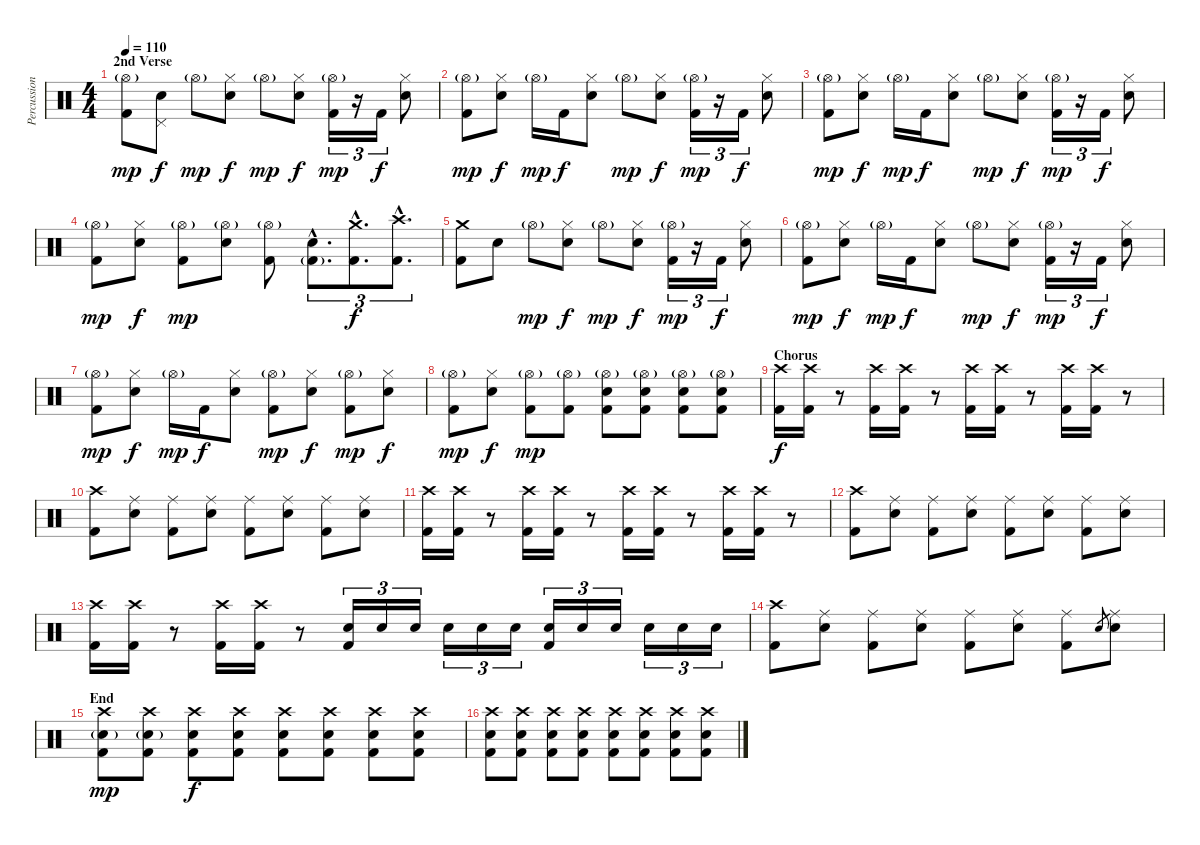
\track ("Percussion" "Percussion") {instrument percussion}
\staff {score}
\articulation defaults
\ts (4 4)
\section ("" "2nd Verse")
\tempo 110
\clef neutral
\ks c
("Hi-Hat (open)"{g} "Kick (hit) 2").8{dy mp} ("Pedal Hi-Hat (hit)" "Electric Snare (hit)").8{dy f} "Hi-Hat (open)"{g}.8{dy mp} ("Hi-Hat (closed)" "Electric Snare (hit)").8{dy f} "Hi-Hat (open)"{g}.8{dy mp} ("Hi-Hat (closed)" "Electric Snare (hit)").8{dy f} ("Hi-Hat (open)"{g} "Kick (hit) 2").16{tu (3 2) dy mp} r.16{tu (3 2)} "Kick (hit) 2".16{tu (3 2) dy f} ("Hi-Hat (closed)" "Electric Snare (hit)").8 |
("Hi-Hat (open)"{g} "Kick (hit) 2").8{dy mp} ("Hi-Hat (closed)" "Electric Snare (hit)").8{dy f} "Hi-Hat (open)"{g}.16{dy mp} "Kick (hit) 2".16{dy f} ("Hi-Hat (closed)" "Electric Snare (hit)").8 "Hi-Hat (open)"{g}.8{dy mp} ("Hi-Hat (closed)" "Electric Snare (hit)").8{dy f} ("Hi-Hat (open)"{g} "Kick (hit) 2").16{tu (3 2) dy mp} r.16{tu (3 2)} "Kick (hit) 2".16{tu (3 2) dy f} ("Hi-Hat (closed)" "Electric Snare (hit)").8 |
("Hi-Hat (open)"{g} "Kick (hit) 2").8{dy mp} ("Hi-Hat (closed)" "Electric Snare (hit)").8{dy f} "Hi-Hat (open)"{g}.16{dy mp} "Kick (hit) 2".16{dy f} ("Hi-Hat (closed)" "Electric Snare (hit)").8 "Hi-Hat (open)"{g}.8{dy mp} ("Hi-Hat (closed)" "Electric Snare (hit)").8{dy f} ("Hi-Hat (open)"{g} "Kick (hit) 2").16{tu (3 2) dy mp} r.16{tu (3 2)} "Kick (hit) 2".16{tu (3 2) dy f} ("Hi-Hat (closed)" "Electric Snare (hit)").8 |
("Hi-Hat (open)"{g} "Kick (hit) 2").8{dy mp} ("Hi-Hat (closed)" "Electric Snare (hit)").8{dy f} ("Hi-Hat (open)"{g} "Kick (hit) 2").8{dy mp} ("Hi-Hat (open)"{g} "Electric Snare (hit)").8 ("Hi-Hat (open)"{g} "Kick (hit) 2").8 ("Kick (hit) 2"{g hac} "Electric Snare (hit)"{hac}).8{d tu (3 2)} ("Crash medium (hit)"{hac} "Kick (hit) 2"{hac}).8{d tu (3 2) dy f} ("Crash high (hit)"{hac} "Kick (hit) 2"{hac}).8{d tu (3 2)} |
("Crash medium (hit)" "Kick (hit) 2").8 "Electric Snare (hit)".8 "Hi-Hat (open)"{g}.8{dy mp} ("Hi-Hat (closed)" "Electric Snare (hit)").8{dy f} "Hi-Hat (open)"{g}.8{dy mp} ("Hi-Hat (closed)" "Electric Snare (hit)").8{dy f} ("Hi-Hat (open)"{g} "Kick (hit) 2").16{tu (3 2) dy mp} r.16{tu (3 2)} "Kick (hit) 2".16{tu (3 2) dy f} ("Hi-Hat (closed)" "Electric Snare (hit)").8 |
("Hi-Hat (open)"{g} "Kick (hit) 2").8{dy mp} ("Hi-Hat (closed)" "Electric Snare (hit)").8{dy f} "Hi-Hat (open)"{g}.16{dy mp} "Kick (hit) 2".16{dy f} ("Hi-Hat (closed)" "Electric Snare (hit)").8 "Hi-Hat (open)"{g}.8{dy mp} ("Hi-Hat (closed)" "Electric Snare (hit)").8{dy f} ("Hi-Hat (open)"{g} "Kick (hit) 2").16{tu (3 2) dy mp} r.16{tu (3 2)} "Kick (hit) 2".16{tu (3 2) dy f} ("Hi-Hat (closed)" "Electric Snare (hit)").8 |
("Hi-Hat (open)"{g} "Kick (hit) 2").8{dy mp} ("Hi-Hat (closed)" "Electric Snare (hit)").8{dy f} "Hi-Hat (open)"{g}.16{dy mp} "Kick (hit) 2".16{dy f} ("Hi-Hat (closed)" "Electric Snare (hit)").8 ("Hi-Hat (open)"{g} "Kick (hit) 2").8{dy mp} ("Hi-Hat (closed)" "Electric Snare (hit)").8{dy f} ("Hi-Hat (open)"{g} "Kick (hit) 2").8{dy mp} ("Hi-Hat (closed)" "Electric Snare (hit)").8{dy f} |
("Hi-Hat (open)"{g} "Kick (hit) 2").8{dy mp} ("Hi-Hat (closed)" "Electric Snare (hit)").8{dy f} ("Hi-Hat (open)"{g} "Kick (hit) 2").8{dy mp} ("Hi-Hat (open)"{g} "Kick (hit) 2").8 ("Hi-Hat (open)"{g} "Electric Snare (hit)" "Kick (hit) 2").8 ("Hi-Hat (open)"{g} "Electric Snare (hit)" "Kick (hit) 2").8 ("Hi-Hat (open)"{g} "Electric Snare (hit)" "Kick (hit) 2").8 ("Hi-Hat (open)"{g} "Electric Snare (hit)" "Kick (hit) 2").8 |
\section ("" "Chorus")
("Crash high (hit)" "Kick (hit) 2").16{dy f} ("Crash high (hit)" "Kick (hit) 2").16 r.8{volume 0} ("Crash high (hit)" "Kick (hit) 2").16{volume 14} ("Crash high (hit)" "Kick (hit) 2").16 r.8{volume 0} ("Crash high (hit)" "Kick (hit) 2").16{volume 14} ("Crash high (hit)" "Kick (hit) 2").16 r.8{volume 0} ("Crash high (hit)" "Kick (hit) 2").16{volume 14} ("Crash high (hit)" "Kick (hit) 2").16 r.8{volume 0} |
("Crash high (hit)" "Kick (hit) 2").8{volume 14} ("Ride (middle)" "Electric Snare (hit)").8 ("Ride (middle)" "Kick (hit) 2").8 ("Ride (middle)" "Electric Snare (hit)").8 ("Ride (middle)" "Kick (hit) 2").8 ("Ride (middle)" "Electric Snare (hit)").8 ("Ride (middle)" "Kick (hit) 2").8 ("Ride (middle)" "Electric Snare (hit)").8 |
("Crash high (hit)" "Kick (hit) 2").16 ("Crash high (hit)" "Kick (hit) 2").16 r.8{volume 0} ("Crash high (hit)" "Kick (hit) 2").16{volume 14} ("Crash high (hit)" "Kick (hit) 2").16 r.8{volume 0} ("Crash high (hit)" "Kick (hit) 2").16{volume 14} ("Crash high (hit)" "Kick (hit) 2").16 r.8{volume 0} ("Crash high (hit)" "Kick (hit) 2").16{volume 14} ("Crash high (hit)" "Kick (hit) 2").16 r.8{volume 0} |
("Crash high (hit)" "Kick (hit) 2").8{volume 14} ("Ride (middle)" "Electric Snare (hit)").8 ("Ride (middle)" "Kick (hit) 2").8 ("Ride (middle)" "Electric Snare (hit)").8 ("Ride (middle)" "Kick (hit) 2").8 ("Ride (middle)" "Electric Snare (hit)").8 ("Ride (middle)" "Kick (hit) 2").8 ("Ride (middle)" "Electric Snare (hit)").8 |
("Crash high (hit)" "Kick (hit) 2").16 ("Crash high (hit)" "Kick (hit) 2").16 r.8{volume 0} ("Crash high (hit)" "Kick (hit) 2").16{volume 14} ("Crash high (hit)" "Kick (hit) 2").16 r.8 ("Electric Snare (hit)" "Kick (hit) 2").16{tu (3 2)} "Electric Snare (hit)".16{tu (3 2)} "Electric Snare (hit)".16{tu (3 2)} "Electric Snare (hit)".16{tu (3 2)} "Electric Snare (hit)".16{tu (3 2)} "Electric Snare (hit)".16{tu (3 2)} ("Electric Snare (hit)" "Kick (hit) 2").16{tu (3 2)} "Electric Snare (hit)".16{tu (3 2)} "Electric Snare (hit)".16{tu (3 2)} "Electric Snare (hit)".16{tu (3 2)} "Electric Snare (hit)".16{tu (3 2)} "Electric Snare (hit)".16{tu (3 2)} |
("Crash high (hit)" "Kick (hit) 2").8 ("Ride (middle)" "Electric Snare (hit)").8 ("Ride (middle)" "Kick (hit) 2").8 ("Ride (middle)" "Electric Snare (hit)").8 ("Ride (middle)" "Kick (hit) 2").8 ("Ride (middle)" "Electric Snare (hit)").8 ("Ride (middle)" "Kick (hit) 2").8 "Electric Snare (hit)".8{gr} ("Ride (middle)" "Electric Snare (hit)").8 |
\section ("" "End")
("Crash high (hit)" "Electric Snare (hit)"{g} "Kick (hit) 2").8{dy mp} ("Crash high (hit)" "Electric Snare (hit)"{g} "Kick (hit) 2").8 ("Crash high (hit)" "Electric Snare (hit)" "Kick (hit) 2").8{dy f} ("Crash high (hit)" "Electric Snare (hit)" "Kick (hit) 2").8 ("Crash high (hit)" "Electric Snare (hit)" "Kick (hit) 2").8 ("Crash high (hit)" "Electric Snare (hit)" "Kick (hit) 2").8 ("Crash high (hit)" "Electric Snare (hit)" "Kick (hit) 2").8 ("Crash high (hit)" "Electric Snare (hit)" "Kick (hit) 2").8 |
("Crash high (hit)" "Electric Snare (hit)" "Kick (hit) 2").8 ("Crash high (hit)" "Electric Snare (hit)" "Kick (hit) 2").8 ("Crash high (hit)" "Electric Snare (hit)" "Kick (hit) 2").8 ("Crash high (hit)" "Electric Snare (hit)" "Kick (hit) 2").8 ("Crash high (hit)" "Electric Snare (hit)" "Kick (hit) 2").8 ("Crash high (hit)" "Electric Snare (hit)" "Kick (hit) 2").8 ("Crash high (hit)" "Electric Snare (hit)" "Kick (hit) 2").8 ("Crash high (hit)" "Electric Snare (hit)" "Kick (hit) 2").8
